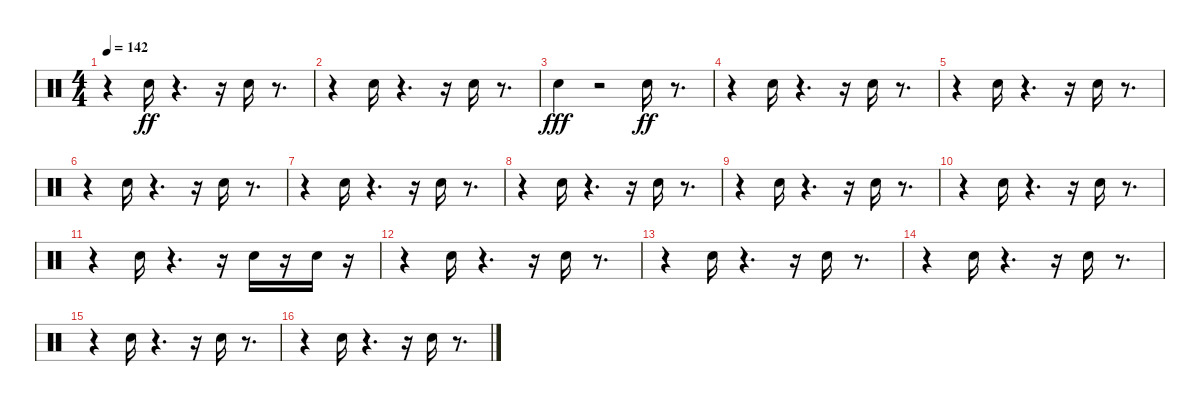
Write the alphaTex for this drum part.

\track "" {instrument percussion}
\staff {score}
\articulation defaults
\ts (4 4)
\tempo 142
\clef neutral
\ks c
r.4{dy ff} "Snare (hit) 2".16 r.4{d} r.16 "Snare (hit) 2".16 r.8{d} |
r.4 "Snare (hit) 2".16 r.4{d} r.16 "Snare (hit) 2".16 r.8{d} |
"Snare (hit) 2".4{dy fff} r.2 "Snare (hit) 2".16{dy ff} r.8{d} |
r.4 "Snare (hit) 2".16 r.4{d} r.16 "Snare (hit) 2".16 r.8{d} |
r.4 "Snare (hit) 2".16 r.4{d} r.16 "Snare (hit) 2".16 r.8{d} |
r.4 "Snare (hit) 2".16 r.4{d} r.16 "Snare (hit) 2".16 r.8{d} |
r.4 "Snare (hit) 2".16 r.4{d} r.16 "Snare (hit) 2".16 r.8{d} |
r.4 "Snare (hit) 2".16 r.4{d} r.16 "Snare (hit) 2".16 r.8{d} |
r.4 "Snare (hit) 2".16 r.4{d} r.16 "Snare (hit) 2".16 r.8{d} |
r.4 "Snare (hit) 2".16 r.4{d} r.16 "Snare (hit) 2".16 r.8{d} |
r.4 "Snare (hit) 2".16 r.4{d} r.16 "Snare (hit) 2".16 r.16 "Snare (hit) 2".16 r.16 |
r.4 "Snare (hit) 2".16 r.4{d} r.16 "Snare (hit) 2".16 r.8{d} |
r.4 "Snare (hit) 2".16 r.4{d} r.16 "Snare (hit) 2".16 r.8{d} |
r.4 "Snare (hit) 2".16 r.4{d} r.16 "Snare (hit) 2".16 r.8{d} |
r.4 "Snare (hit) 2".16 r.4{d} r.16 "Snare (hit) 2".16 r.8{d} |
r.4 "Snare (hit) 2".16 r.4{d} r.16 "Snare (hit) 2".16 r.8{d}
